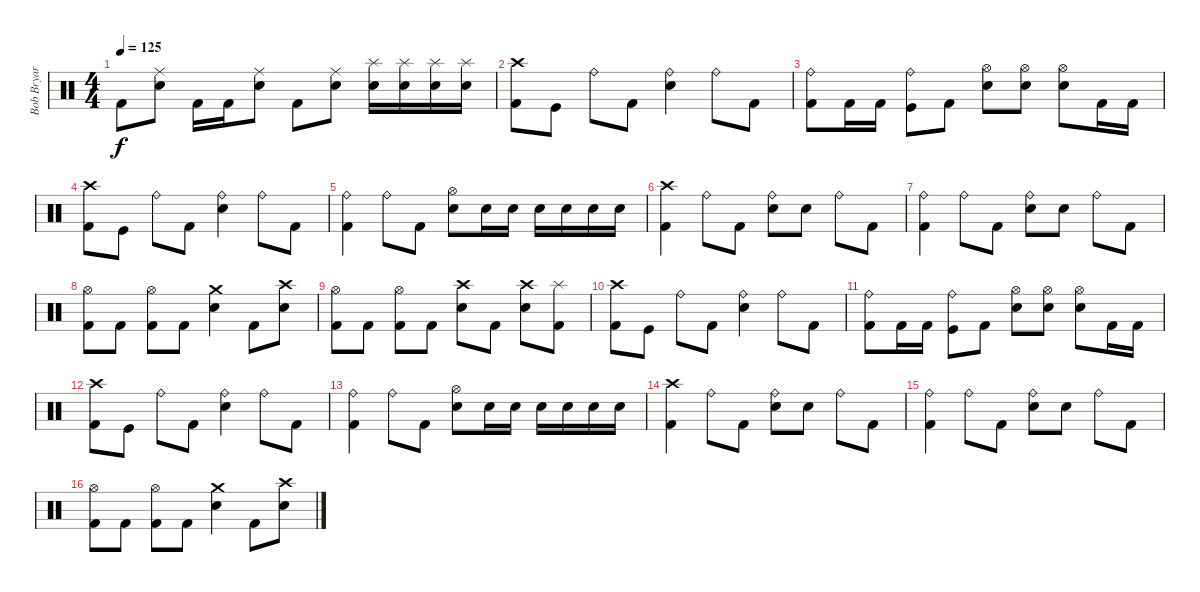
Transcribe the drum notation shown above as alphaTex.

\track ("Bob Bryar" "Bob Bryar") {instrument percussion}
\staff {score}
\articulation defaults
\ts (4 4)
\tempo 125
\clef neutral
\ks c "Kick (hit) 2".8{dy f}
("Ride (middle)" "Snare (hit) 2").8 "Kick (hit) 2".16 "Kick (hit) 2".16 ("Ride (middle)" "Snare (hit) 2").8 "Kick (hit) 2".8 ("Ride (middle)" "Snare (hit) 2").8 ("Splash (hit)" "Snare (hit) 2").16 ("Splash (hit)" "Snare (hit) 2").16 ("Splash (hit)" "Snare (hit) 2").16 ("Splash (hit)" "Snare (hit) 2").16 |
("Kick (hit) 2" "Crash high (hit)").8 "Kick (hit)".8 "Ride (bell)".8 "Kick (hit) 2".8 ("Ride (bell)" "Snare (hit) 2").4 "Ride (bell)".8 "Kick (hit) 2".8 |
("Ride (bell)" "Kick (hit) 2").8 "Kick (hit) 2".16 "Kick (hit) 2".16 ("Ride (bell)" "Kick (hit)").8 "Kick (hit) 2".8 ("Hi-Hat (open)" "Snare (hit) 2").8 ("Hi-Hat (open)" "Snare (hit) 2").8 ("Hi-Hat (open)" "Snare (hit) 2").8 "Kick (hit) 2".16 "Kick (hit) 2".16 |
("Kick (hit) 2" "Crash high (hit)").8 "Kick (hit)".8 "Ride (bell)".8 "Kick (hit) 2".8 ("Ride (bell)" "Snare (hit) 2").4 "Ride (bell)".8 "Kick (hit) 2".8 |
("Ride (bell)" "Kick (hit) 2").4 "Ride (bell)".8 "Kick (hit) 2".8 ("Hi-Hat (open)" "Snare (hit) 2").8 "Snare (hit) 2".16 "Snare (hit) 2".16 "Snare (hit) 2".16 "Snare (hit) 2".16 "Snare (hit) 2".16 "Snare (hit) 2".16 |
("Crash high (hit)" "Kick (hit) 2").4 "Ride (bell)".8 "Kick (hit) 2".8 ("Ride (bell)" "Snare (hit) 2").8 "Snare (hit) 2".8 "Ride (bell)".8 "Kick (hit) 2".8 |
("Ride (bell)" "Kick (hit) 2").4 "Ride (bell)".8 "Kick (hit) 2".8 ("Ride (bell)" "Snare (hit) 2").8 "Snare (hit) 2".8 "Ride (bell)".8 "Kick (hit) 2".8 |
("Hi-Hat (open)" "Kick (hit) 2").8 "Kick (hit) 2".8 ("Hi-Hat (open)" "Kick (hit) 2").8 "Kick (hit) 2".8 ("Crash medium (hit)" "Snare (hit) 2").4 "Kick (hit) 2".8 ("Crash high (hit)" "Snare (hit) 2").8 |
("Hi-Hat (open)" "Kick (hit) 2").8 "Kick (hit) 2".8 ("Hi-Hat (open)" "Kick (hit) 2").8 "Kick (hit) 2".8 ("Crash high (hit)" "Snare (hit) 2").8 "Kick (hit) 2".8 ("Crash high (hit)" "Snare (hit) 2").8 ("Splash (hit)" "Kick (hit) 2").8 |
("Kick (hit) 2" "Crash high (hit)").8 "Kick (hit)".8 "Ride (bell)".8 "Kick (hit) 2".8 ("Ride (bell)" "Snare (hit) 2").4 "Ride (bell)".8 "Kick (hit) 2".8 |
("Ride (bell)" "Kick (hit) 2").8 "Kick (hit) 2".16 "Kick (hit) 2".16 ("Ride (bell)" "Kick (hit)").8 "Kick (hit) 2".8 ("Hi-Hat (open)" "Snare (hit) 2").8 ("Hi-Hat (open)" "Snare (hit) 2").8 ("Hi-Hat (open)" "Snare (hit) 2").8 "Kick (hit) 2".16 "Kick (hit) 2".16 |
("Kick (hit) 2" "Crash high (hit)").8 "Kick (hit)".8 "Ride (bell)".8 "Kick (hit) 2".8 ("Ride (bell)" "Snare (hit) 2").4 "Ride (bell)".8 "Kick (hit) 2".8 |
("Ride (bell)" "Kick (hit) 2").4 "Ride (bell)".8 "Kick (hit) 2".8 ("Hi-Hat (open)" "Snare (hit) 2").8 "Snare (hit) 2".16 "Snare (hit) 2".16 "Snare (hit) 2".16 "Snare (hit) 2".16 "Snare (hit) 2".16 "Snare (hit) 2".16 |
("Crash high (hit)" "Kick (hit) 2").4 "Ride (bell)".8 "Kick (hit) 2".8 ("Ride (bell)" "Snare (hit) 2").8 "Snare (hit) 2".8 "Ride (bell)".8 "Kick (hit) 2".8 |
("Ride (bell)" "Kick (hit) 2").4 "Ride (bell)".8 "Kick (hit) 2".8 ("Ride (bell)" "Snare (hit) 2").8 "Snare (hit) 2".8 "Ride (bell)".8 "Kick (hit) 2".8 |
("Hi-Hat (open)" "Kick (hit) 2").8 "Kick (hit) 2".8 ("Hi-Hat (open)" "Kick (hit) 2").8 "Kick (hit) 2".8 ("Crash medium (hit)" "Snare (hit) 2").4 "Kick (hit) 2".8 ("Crash high (hit)" "Snare (hit) 2").8
